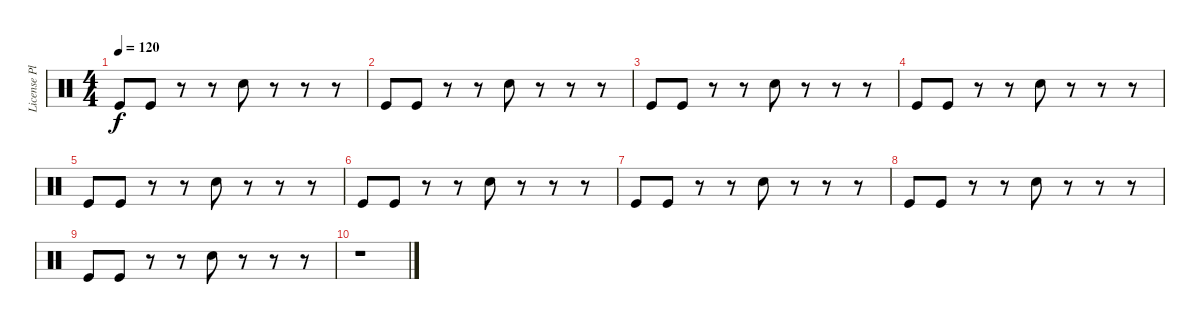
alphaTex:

\track ("License Plate Machine" "License Pl") {instrument percussion}
\staff {score}
\articulation defaults
\ts (4 4)
\tempo 120
\clef neutral
\ks c "Kick (hit)".8{dy f} "Kick (hit)".8
r.8 r.8 "Electric Snare (hit)".8 r.8 r.8 r.8 |
"Kick (hit)".8 "Kick (hit)".8 r.8 r.8 "Electric Snare (hit)".8 r.8 r.8 r.8 |
"Kick (hit)".8 "Kick (hit)".8 r.8 r.8 "Electric Snare (hit)".8 r.8 r.8 r.8 |
"Kick (hit)".8 "Kick (hit)".8 r.8 r.8 "Electric Snare (hit)".8 r.8 r.8 r.8 |
"Kick (hit)".8 "Kick (hit)".8 r.8 r.8 "Electric Snare (hit)".8 r.8 r.8 r.8 |
"Kick (hit)".8 "Kick (hit)".8 r.8 r.8 "Electric Snare (hit)".8 r.8 r.8 r.8 |
"Kick (hit)".8 "Kick (hit)".8 r.8 r.8 "Electric Snare (hit)".8 r.8 r.8 r.8 |
"Kick (hit)".8 "Kick (hit)".8 r.8 r.8 "Electric Snare (hit)".8 r.8 r.8 r.8 |
"Kick (hit)".8 "Kick (hit)".8 r.8 r.8 "Electric Snare (hit)".8 r.8 r.8 r.8 |
r.1
